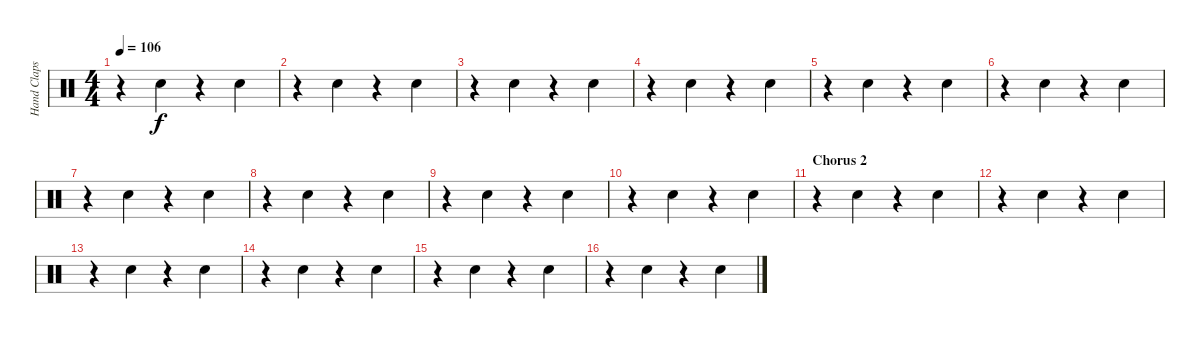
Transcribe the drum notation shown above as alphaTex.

\track ("Hand Claps" "Hand Claps") {instrument percussion}
\staff {score}
\articulation defaults
\ts (4 4)
\tempo 106
\clef neutral
\ks c
r.4{dy f} "Hand Clap (hit)".4 r.4 "Hand Clap (hit)".4 |
r.4 "Hand Clap (hit)".4 r.4 "Hand Clap (hit)".4 |
r.4 "Hand Clap (hit)".4 r.4 "Hand Clap (hit)".4 |
r.4 "Hand Clap (hit)".4 r.4 "Hand Clap (hit)".4 |
r.4 "Hand Clap (hit)".4 r.4 "Hand Clap (hit)".4 |
r.4 "Hand Clap (hit)".4 r.4 "Hand Clap (hit)".4 |
r.4 "Hand Clap (hit)".4 r.4 "Hand Clap (hit)".4 |
r.4 "Hand Clap (hit)".4 r.4 "Hand Clap (hit)".4 |
r.4 "Hand Clap (hit)".4 r.4 "Hand Clap (hit)".4 |
r.4 "Hand Clap (hit)".4 r.4 "Hand Clap (hit)".4 |
\section ("" "Chorus 2")
r.4 "Hand Clap (hit)".4 r.4 "Hand Clap (hit)".4 |
r.4 "Hand Clap (hit)".4 r.4 "Hand Clap (hit)".4 |
r.4 "Hand Clap (hit)".4 r.4 "Hand Clap (hit)".4 |
r.4 "Hand Clap (hit)".4 r.4 "Hand Clap (hit)".4 |
r.4 "Hand Clap (hit)".4 r.4 "Hand Clap (hit)".4 |
r.4 "Hand Clap (hit)".4 r.4 "Hand Clap (hit)".4
